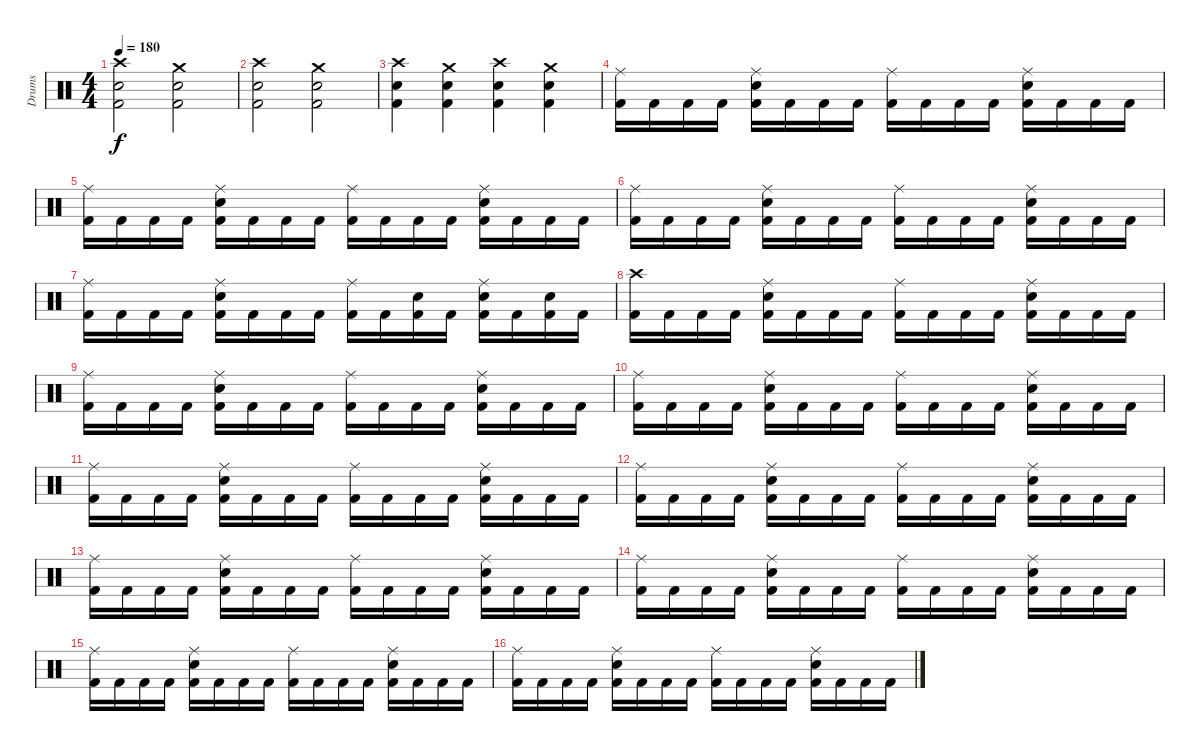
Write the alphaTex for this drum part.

\track ("Drums" "Drums") {instrument percussion}
\staff {score}
\articulation defaults
\ts (4 4)
\tempo 180
\clef neutral
\ks c
("Crash high (hit)" "Electric Snare (hit)" "Kick (hit) 2").2{dy f} ("Crash medium (hit)" "Electric Snare (hit)" "Kick (hit) 2").2 |
("Crash high (hit)" "Electric Snare (hit)" "Kick (hit) 2").2 ("Crash medium (hit)" "Electric Snare (hit)" "Kick (hit) 2").2 |
("Crash high (hit)" "Electric Snare (hit)" "Kick (hit) 2").4 ("Crash medium (hit)" "Electric Snare (hit)" "Kick (hit) 2").4 ("Crash high (hit)" "Electric Snare (hit)" "Kick (hit) 2").4 ("Crash medium (hit)" "Electric Snare (hit)" "Kick (hit) 2").4 |
("Ride (middle)" "Kick (hit) 2").16 "Kick (hit) 2".16 "Kick (hit) 2".16 "Kick (hit) 2".16 ("Ride (middle)" "Electric Snare (hit)" "Kick (hit) 2").16 "Kick (hit) 2".16 "Kick (hit) 2".16 "Kick (hit) 2".16 ("Ride (middle)" "Kick (hit) 2").16 "Kick (hit) 2".16 "Kick (hit) 2".16 "Kick (hit) 2".16 ("Ride (middle)" "Electric Snare (hit)" "Kick (hit) 2").16 "Kick (hit) 2".16 "Kick (hit) 2".16 "Kick (hit) 2".16 |
("Ride (middle)" "Kick (hit) 2").16 "Kick (hit) 2".16 "Kick (hit) 2".16 "Kick (hit) 2".16 ("Ride (middle)" "Electric Snare (hit)" "Kick (hit) 2").16 "Kick (hit) 2".16 "Kick (hit) 2".16 "Kick (hit) 2".16 ("Ride (middle)" "Kick (hit) 2").16 "Kick (hit) 2".16 "Kick (hit) 2".16 "Kick (hit) 2".16 ("Ride (middle)" "Electric Snare (hit)" "Kick (hit) 2").16 "Kick (hit) 2".16 "Kick (hit) 2".16 "Kick (hit) 2".16 |
("Ride (middle)" "Kick (hit) 2").16 "Kick (hit) 2".16 "Kick (hit) 2".16 "Kick (hit) 2".16 ("Ride (middle)" "Electric Snare (hit)" "Kick (hit) 2").16 "Kick (hit) 2".16 "Kick (hit) 2".16 "Kick (hit) 2".16 ("Ride (middle)" "Kick (hit) 2").16 "Kick (hit) 2".16 "Kick (hit) 2".16 "Kick (hit) 2".16 ("Ride (middle)" "Electric Snare (hit)" "Kick (hit) 2").16 "Kick (hit) 2".16 "Kick (hit) 2".16 "Kick (hit) 2".16 |
("Ride (middle)" "Kick (hit) 2").16 "Kick (hit) 2".16 "Kick (hit) 2".16 "Kick (hit) 2".16 ("Ride (middle)" "Electric Snare (hit)" "Kick (hit) 2").16 "Kick (hit) 2".16 "Kick (hit) 2".16 "Kick (hit) 2".16 ("Ride (middle)" "Kick (hit) 2").16 "Kick (hit) 2".16 ("Electric Snare (hit)" "Kick (hit) 2").16 "Kick (hit) 2".16 ("Ride (middle)" "Electric Snare (hit)" "Kick (hit) 2").16 "Kick (hit) 2".16 ("Electric Snare (hit)" "Kick (hit) 2").16 "Kick (hit) 2".16 |
("Crash high (hit)" "Kick (hit) 2").16 "Kick (hit) 2".16 "Kick (hit) 2".16 "Kick (hit) 2".16 ("Ride (middle)" "Electric Snare (hit)" "Kick (hit) 2").16 "Kick (hit) 2".16 "Kick (hit) 2".16 "Kick (hit) 2".16 ("Ride (middle)" "Kick (hit) 2").16 "Kick (hit) 2".16 "Kick (hit) 2".16 "Kick (hit) 2".16 ("Ride (middle)" "Electric Snare (hit)" "Kick (hit) 2").16 "Kick (hit) 2".16 "Kick (hit) 2".16 "Kick (hit) 2".16 |
("Ride (middle)" "Kick (hit) 2").16 "Kick (hit) 2".16 "Kick (hit) 2".16 "Kick (hit) 2".16 ("Ride (middle)" "Electric Snare (hit)" "Kick (hit) 2").16 "Kick (hit) 2".16 "Kick (hit) 2".16 "Kick (hit) 2".16 ("Ride (middle)" "Kick (hit) 2").16 "Kick (hit) 2".16 "Kick (hit) 2".16 "Kick (hit) 2".16 ("Ride (middle)" "Electric Snare (hit)" "Kick (hit) 2").16 "Kick (hit) 2".16 "Kick (hit) 2".16 "Kick (hit) 2".16 |
("Ride (middle)" "Kick (hit) 2").16 "Kick (hit) 2".16 "Kick (hit) 2".16 "Kick (hit) 2".16 ("Ride (middle)" "Electric Snare (hit)" "Kick (hit) 2").16 "Kick (hit) 2".16 "Kick (hit) 2".16 "Kick (hit) 2".16 ("Ride (middle)" "Kick (hit) 2").16 "Kick (hit) 2".16 "Kick (hit) 2".16 "Kick (hit) 2".16 ("Ride (middle)" "Electric Snare (hit)" "Kick (hit) 2").16 "Kick (hit) 2".16 "Kick (hit) 2".16 "Kick (hit) 2".16 |
("Ride (middle)" "Kick (hit) 2").16 "Kick (hit) 2".16 "Kick (hit) 2".16 "Kick (hit) 2".16 ("Ride (middle)" "Electric Snare (hit)" "Kick (hit) 2").16 "Kick (hit) 2".16 "Kick (hit) 2".16 "Kick (hit) 2".16 ("Ride (middle)" "Kick (hit) 2").16 "Kick (hit) 2".16 "Kick (hit) 2".16 "Kick (hit) 2".16 ("Ride (middle)" "Electric Snare (hit)" "Kick (hit) 2").16 "Kick (hit) 2".16 "Kick (hit) 2".16 "Kick (hit) 2".16 |
("Ride (middle)" "Kick (hit) 2").16 "Kick (hit) 2".16 "Kick (hit) 2".16 "Kick (hit) 2".16 ("Ride (middle)" "Electric Snare (hit)" "Kick (hit) 2").16 "Kick (hit) 2".16 "Kick (hit) 2".16 "Kick (hit) 2".16 ("Ride (middle)" "Kick (hit) 2").16 "Kick (hit) 2".16 "Kick (hit) 2".16 "Kick (hit) 2".16 ("Ride (middle)" "Electric Snare (hit)" "Kick (hit) 2").16 "Kick (hit) 2".16 "Kick (hit) 2".16 "Kick (hit) 2".16 |
("Ride (middle)" "Kick (hit) 2").16 "Kick (hit) 2".16 "Kick (hit) 2".16 "Kick (hit) 2".16 ("Ride (middle)" "Electric Snare (hit)" "Kick (hit) 2").16 "Kick (hit) 2".16 "Kick (hit) 2".16 "Kick (hit) 2".16 ("Ride (middle)" "Kick (hit) 2").16 "Kick (hit) 2".16 "Kick (hit) 2".16 "Kick (hit) 2".16 ("Ride (middle)" "Electric Snare (hit)" "Kick (hit) 2").16 "Kick (hit) 2".16 "Kick (hit) 2".16 "Kick (hit) 2".16 |
("Ride (middle)" "Kick (hit) 2").16 "Kick (hit) 2".16 "Kick (hit) 2".16 "Kick (hit) 2".16 ("Ride (middle)" "Electric Snare (hit)" "Kick (hit) 2").16 "Kick (hit) 2".16 "Kick (hit) 2".16 "Kick (hit) 2".16 ("Ride (middle)" "Kick (hit) 2").16 "Kick (hit) 2".16 "Kick (hit) 2".16 "Kick (hit) 2".16 ("Ride (middle)" "Electric Snare (hit)" "Kick (hit) 2").16 "Kick (hit) 2".16 "Kick (hit) 2".16 "Kick (hit) 2".16 |
("Ride (middle)" "Kick (hit) 2").16 "Kick (hit) 2".16 "Kick (hit) 2".16 "Kick (hit) 2".16 ("Ride (middle)" "Electric Snare (hit)" "Kick (hit) 2").16 "Kick (hit) 2".16 "Kick (hit) 2".16 "Kick (hit) 2".16 ("Ride (middle)" "Kick (hit) 2").16 "Kick (hit) 2".16 "Kick (hit) 2".16 "Kick (hit) 2".16 ("Ride (middle)" "Electric Snare (hit)" "Kick (hit) 2").16 "Kick (hit) 2".16 "Kick (hit) 2".16 "Kick (hit) 2".16 |
("Ride (middle)" "Kick (hit) 2").16 "Kick (hit) 2".16 "Kick (hit) 2".16 "Kick (hit) 2".16 ("Ride (middle)" "Electric Snare (hit)" "Kick (hit) 2").16 "Kick (hit) 2".16 "Kick (hit) 2".16 "Kick (hit) 2".16 ("Ride (middle)" "Kick (hit) 2").16 "Kick (hit) 2".16 "Kick (hit) 2".16 "Kick (hit) 2".16 ("Ride (middle)" "Electric Snare (hit)" "Kick (hit) 2").16 "Kick (hit) 2".16 "Kick (hit) 2".16 "Kick (hit) 2".16
